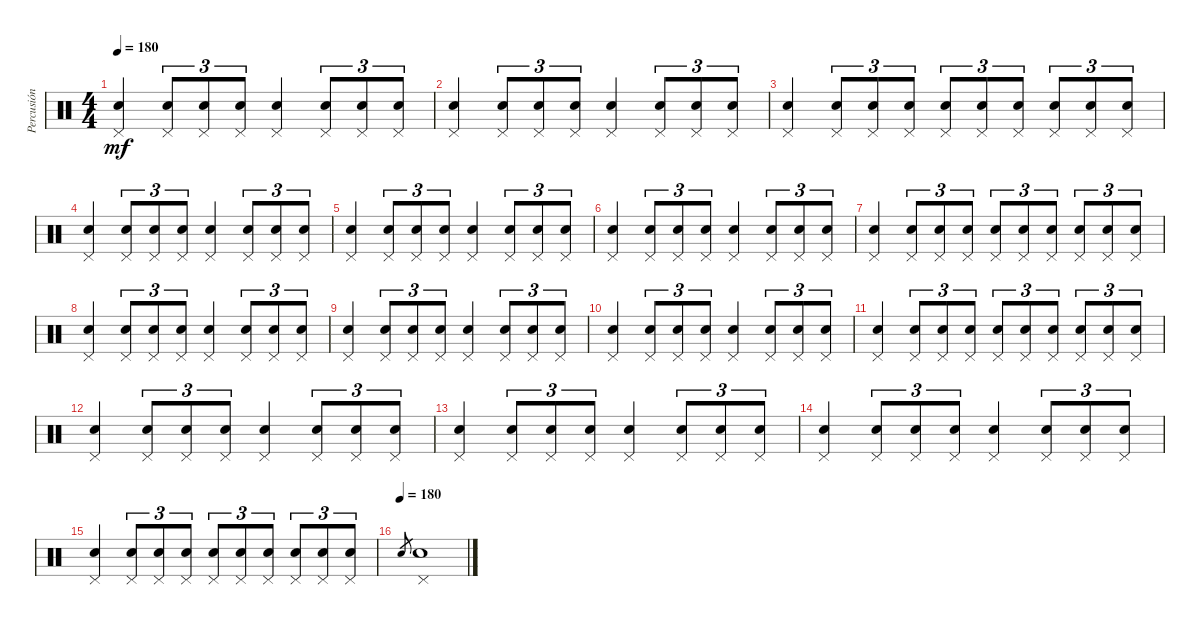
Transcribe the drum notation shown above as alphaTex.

\track ("Percusión" "Percusión") {instrument percussion}
\staff {score}
\articulation defaults
\ts (4 4)
\tempo 180
\clef neutral
\ks c
("Pedal Hi-Hat (hit)" "Electric Snare (hit)").4{dy mf} ("Pedal Hi-Hat (hit)" "Electric Snare (hit)").8{tu (3 2)} ("Pedal Hi-Hat (hit)" "Electric Snare (hit)").8{tu (3 2)} ("Pedal Hi-Hat (hit)" "Electric Snare (hit)").8{tu (3 2)} ("Pedal Hi-Hat (hit)" "Electric Snare (hit)").4 ("Pedal Hi-Hat (hit)" "Electric Snare (hit)").8{tu (3 2)} ("Pedal Hi-Hat (hit)" "Electric Snare (hit)").8{tu (3 2)} ("Pedal Hi-Hat (hit)" "Electric Snare (hit)").8{tu (3 2)} |
("Pedal Hi-Hat (hit)" "Electric Snare (hit)").4 ("Pedal Hi-Hat (hit)" "Electric Snare (hit)").8{tu (3 2)} ("Pedal Hi-Hat (hit)" "Electric Snare (hit)").8{tu (3 2)} ("Pedal Hi-Hat (hit)" "Electric Snare (hit)").8{tu (3 2)} ("Pedal Hi-Hat (hit)" "Electric Snare (hit)").4 ("Pedal Hi-Hat (hit)" "Electric Snare (hit)").8{tu (3 2)} ("Pedal Hi-Hat (hit)" "Electric Snare (hit)").8{tu (3 2)} ("Pedal Hi-Hat (hit)" "Electric Snare (hit)").8{tu (3 2)} |
("Pedal Hi-Hat (hit)" "Electric Snare (hit)").4 ("Pedal Hi-Hat (hit)" "Electric Snare (hit)").8{tu (3 2)} ("Pedal Hi-Hat (hit)" "Electric Snare (hit)").8{tu (3 2)} ("Pedal Hi-Hat (hit)" "Electric Snare (hit)").8{tu (3 2)} ("Pedal Hi-Hat (hit)" "Electric Snare (hit)").8{tu (3 2)} ("Pedal Hi-Hat (hit)" "Electric Snare (hit)").8{tu (3 2)} ("Pedal Hi-Hat (hit)" "Electric Snare (hit)").8{tu (3 2)} ("Pedal Hi-Hat (hit)" "Electric Snare (hit)").8{tu (3 2)} ("Pedal Hi-Hat (hit)" "Electric Snare (hit)").8{tu (3 2)} ("Pedal Hi-Hat (hit)" "Electric Snare (hit)").8{tu (3 2)} |
("Pedal Hi-Hat (hit)" "Electric Snare (hit)").4 ("Pedal Hi-Hat (hit)" "Electric Snare (hit)").8{tu (3 2)} ("Pedal Hi-Hat (hit)" "Electric Snare (hit)").8{tu (3 2)} ("Pedal Hi-Hat (hit)" "Electric Snare (hit)").8{tu (3 2)} ("Pedal Hi-Hat (hit)" "Electric Snare (hit)").4 ("Pedal Hi-Hat (hit)" "Electric Snare (hit)").8{tu (3 2)} ("Pedal Hi-Hat (hit)" "Electric Snare (hit)").8{tu (3 2)} ("Pedal Hi-Hat (hit)" "Electric Snare (hit)").8{tu (3 2)} |
("Pedal Hi-Hat (hit)" "Electric Snare (hit)").4 ("Pedal Hi-Hat (hit)" "Electric Snare (hit)").8{tu (3 2)} ("Pedal Hi-Hat (hit)" "Electric Snare (hit)").8{tu (3 2)} ("Pedal Hi-Hat (hit)" "Electric Snare (hit)").8{tu (3 2)} ("Pedal Hi-Hat (hit)" "Electric Snare (hit)").4 ("Pedal Hi-Hat (hit)" "Electric Snare (hit)").8{tu (3 2)} ("Pedal Hi-Hat (hit)" "Electric Snare (hit)").8{tu (3 2)} ("Pedal Hi-Hat (hit)" "Electric Snare (hit)").8{tu (3 2)} |
("Pedal Hi-Hat (hit)" "Electric Snare (hit)").4 ("Pedal Hi-Hat (hit)" "Electric Snare (hit)").8{tu (3 2)} ("Pedal Hi-Hat (hit)" "Electric Snare (hit)").8{tu (3 2)} ("Pedal Hi-Hat (hit)" "Electric Snare (hit)").8{tu (3 2)} ("Pedal Hi-Hat (hit)" "Electric Snare (hit)").4 ("Pedal Hi-Hat (hit)" "Electric Snare (hit)").8{tu (3 2)} ("Pedal Hi-Hat (hit)" "Electric Snare (hit)").8{tu (3 2)} ("Pedal Hi-Hat (hit)" "Electric Snare (hit)").8{tu (3 2)} |
("Pedal Hi-Hat (hit)" "Electric Snare (hit)").4 ("Pedal Hi-Hat (hit)" "Electric Snare (hit)").8{tu (3 2)} ("Pedal Hi-Hat (hit)" "Electric Snare (hit)").8{tu (3 2)} ("Pedal Hi-Hat (hit)" "Electric Snare (hit)").8{tu (3 2)} ("Pedal Hi-Hat (hit)" "Electric Snare (hit)").8{tu (3 2)} ("Pedal Hi-Hat (hit)" "Electric Snare (hit)").8{tu (3 2)} ("Pedal Hi-Hat (hit)" "Electric Snare (hit)").8{tu (3 2)} ("Pedal Hi-Hat (hit)" "Electric Snare (hit)").8{tu (3 2)} ("Pedal Hi-Hat (hit)" "Electric Snare (hit)").8{tu (3 2)} ("Pedal Hi-Hat (hit)" "Electric Snare (hit)").8{tu (3 2)} |
("Pedal Hi-Hat (hit)" "Electric Snare (hit)").4 ("Pedal Hi-Hat (hit)" "Electric Snare (hit)").8{tu (3 2)} ("Pedal Hi-Hat (hit)" "Electric Snare (hit)").8{tu (3 2)} ("Pedal Hi-Hat (hit)" "Electric Snare (hit)").8{tu (3 2)} ("Pedal Hi-Hat (hit)" "Electric Snare (hit)").4 ("Pedal Hi-Hat (hit)" "Electric Snare (hit)").8{tu (3 2)} ("Pedal Hi-Hat (hit)" "Electric Snare (hit)").8{tu (3 2)} ("Pedal Hi-Hat (hit)" "Electric Snare (hit)").8{tu (3 2)} |
("Pedal Hi-Hat (hit)" "Electric Snare (hit)").4 ("Pedal Hi-Hat (hit)" "Electric Snare (hit)").8{tu (3 2)} ("Pedal Hi-Hat (hit)" "Electric Snare (hit)").8{tu (3 2)} ("Pedal Hi-Hat (hit)" "Electric Snare (hit)").8{tu (3 2)} ("Pedal Hi-Hat (hit)" "Electric Snare (hit)").4 ("Pedal Hi-Hat (hit)" "Electric Snare (hit)").8{tu (3 2)} ("Pedal Hi-Hat (hit)" "Electric Snare (hit)").8{tu (3 2)} ("Pedal Hi-Hat (hit)" "Electric Snare (hit)").8{tu (3 2)} |
("Pedal Hi-Hat (hit)" "Electric Snare (hit)").4 ("Pedal Hi-Hat (hit)" "Electric Snare (hit)").8{tu (3 2)} ("Pedal Hi-Hat (hit)" "Electric Snare (hit)").8{tu (3 2)} ("Pedal Hi-Hat (hit)" "Electric Snare (hit)").8{tu (3 2)} ("Pedal Hi-Hat (hit)" "Electric Snare (hit)").4 ("Pedal Hi-Hat (hit)" "Electric Snare (hit)").8{tu (3 2)} ("Pedal Hi-Hat (hit)" "Electric Snare (hit)").8{tu (3 2)} ("Pedal Hi-Hat (hit)" "Electric Snare (hit)").8{tu (3 2)} |
("Pedal Hi-Hat (hit)" "Electric Snare (hit)").4 ("Pedal Hi-Hat (hit)" "Electric Snare (hit)").8{tu (3 2)} ("Pedal Hi-Hat (hit)" "Electric Snare (hit)").8{tu (3 2)} ("Pedal Hi-Hat (hit)" "Electric Snare (hit)").8{tu (3 2)} ("Pedal Hi-Hat (hit)" "Electric Snare (hit)").8{tu (3 2)} ("Pedal Hi-Hat (hit)" "Electric Snare (hit)").8{tu (3 2)} ("Pedal Hi-Hat (hit)" "Electric Snare (hit)").8{tu (3 2)} ("Pedal Hi-Hat (hit)" "Electric Snare (hit)").8{tu (3 2)} ("Pedal Hi-Hat (hit)" "Electric Snare (hit)").8{tu (3 2)} ("Pedal Hi-Hat (hit)" "Electric Snare (hit)").8{tu (3 2)} |
("Pedal Hi-Hat (hit)" "Electric Snare (hit)").4 ("Pedal Hi-Hat (hit)" "Electric Snare (hit)").8{tu (3 2)} ("Pedal Hi-Hat (hit)" "Electric Snare (hit)").8{tu (3 2)} ("Pedal Hi-Hat (hit)" "Electric Snare (hit)").8{tu (3 2)} ("Pedal Hi-Hat (hit)" "Electric Snare (hit)").4 ("Pedal Hi-Hat (hit)" "Electric Snare (hit)").8{tu (3 2)} ("Pedal Hi-Hat (hit)" "Electric Snare (hit)").8{tu (3 2)} ("Pedal Hi-Hat (hit)" "Electric Snare (hit)").8{tu (3 2)} |
("Pedal Hi-Hat (hit)" "Electric Snare (hit)").4 ("Pedal Hi-Hat (hit)" "Electric Snare (hit)").8{tu (3 2)} ("Pedal Hi-Hat (hit)" "Electric Snare (hit)").8{tu (3 2)} ("Pedal Hi-Hat (hit)" "Electric Snare (hit)").8{tu (3 2)} ("Pedal Hi-Hat (hit)" "Electric Snare (hit)").4 ("Pedal Hi-Hat (hit)" "Electric Snare (hit)").8{tu (3 2)} ("Pedal Hi-Hat (hit)" "Electric Snare (hit)").8{tu (3 2)} ("Pedal Hi-Hat (hit)" "Electric Snare (hit)").8{tu (3 2)} |
("Pedal Hi-Hat (hit)" "Electric Snare (hit)").4 ("Pedal Hi-Hat (hit)" "Electric Snare (hit)").8{tu (3 2)} ("Pedal Hi-Hat (hit)" "Electric Snare (hit)").8{tu (3 2)} ("Pedal Hi-Hat (hit)" "Electric Snare (hit)").8{tu (3 2)} ("Pedal Hi-Hat (hit)" "Electric Snare (hit)").4 ("Pedal Hi-Hat (hit)" "Electric Snare (hit)").8{tu (3 2)} ("Pedal Hi-Hat (hit)" "Electric Snare (hit)").8{tu (3 2)} ("Pedal Hi-Hat (hit)" "Electric Snare (hit)").8{tu (3 2)} |
("Pedal Hi-Hat (hit)" "Electric Snare (hit)").4 ("Pedal Hi-Hat (hit)" "Electric Snare (hit)").8{tu (3 2)} ("Pedal Hi-Hat (hit)" "Electric Snare (hit)").8{tu (3 2)} ("Pedal Hi-Hat (hit)" "Electric Snare (hit)").8{tu (3 2)} ("Pedal Hi-Hat (hit)" "Electric Snare (hit)").8{tu (3 2)} ("Pedal Hi-Hat (hit)" "Electric Snare (hit)").8{tu (3 2)} ("Pedal Hi-Hat (hit)" "Electric Snare (hit)").8{tu (3 2)} ("Pedal Hi-Hat (hit)" "Electric Snare (hit)").8{tu (3 2)} ("Pedal Hi-Hat (hit)" "Electric Snare (hit)").8{tu (3 2)} ("Pedal Hi-Hat (hit)" "Electric Snare (hit)").8{tu (3 2)} |
\tempo (180)
"Electric Snare (hit)".8{gr} ("Pedal Hi-Hat (hit)" "Electric Snare (hit)").1
